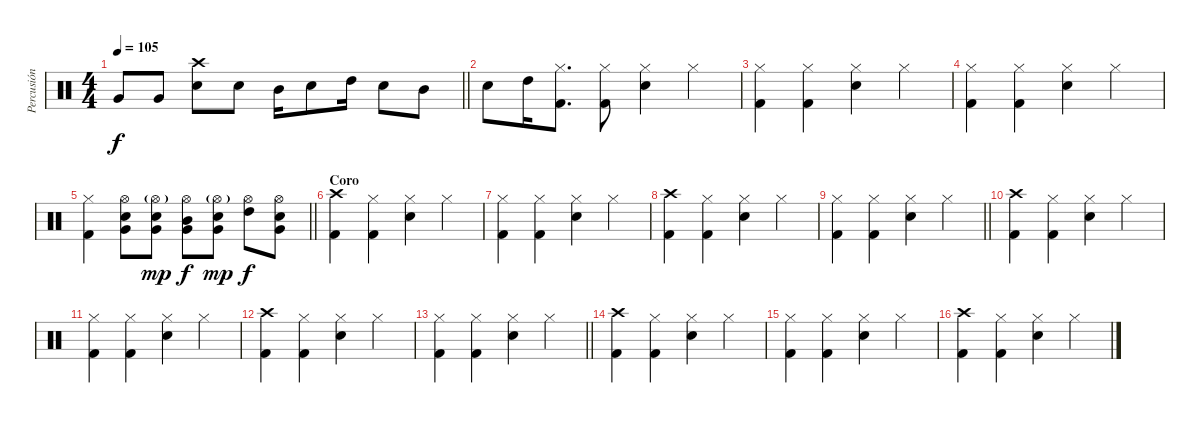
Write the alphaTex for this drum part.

\track ("Percusión" "Percusión") {instrument percussion}
\staff {score}
\articulation defaults
\ts (4 4)
\tempo 105
\clef neutral
\barLineRight lightlight
\ks c "Very Low Tom (hit)".8{dy f volume 16} "Very Low Tom (hit)".8
("Snare (hit) 2" "Crash high (hit)").8 "Snare (hit) 2".8 "Mid Tom (hit)".16 "Snare (hit) 2".8 "High Tom (hit)".16 "Snare (hit) 2".8 "Mid Tom (hit)".8 |
"Snare (hit) 2".8 "High Tom (hit)".16 ("Kick (hit) 2" "Hi-Hat (closed)").8{d} ("Kick (hit) 2" "Hi-Hat (closed)").8 ("Snare (hit) 2" "Hi-Hat (closed)").4{volume 13} "Hi-Hat (closed)".4 |
("Kick (hit) 2" "Hi-Hat (closed)").4 ("Kick (hit) 2" "Hi-Hat (closed)").4 ("Snare (hit) 2" "Hi-Hat (closed)").4 "Hi-Hat (closed)".4 |
("Kick (hit) 2" "Hi-Hat (closed)").4 ("Kick (hit) 2" "Hi-Hat (closed)").4 ("Snare (hit) 2" "Hi-Hat (closed)").4 "Hi-Hat (closed)".4 |
\barLineRight lightlight
("Kick (hit) 2" "Hi-Hat (closed)").4 ("Very Low Tom (hit)" "Snare (hit) 2" "Hi-Hat (open)").8 ("Very Low Tom (hit)" "Snare (hit) 2" "Hi-Hat (open)"{g}).8{dy mp} ("Very Low Tom (hit)" "Mid Tom (hit)" "Hi-Hat (open)").8{dy f} ("Very Low Tom (hit)" "Snare (hit) 2" "Hi-Hat (open)"{g}).8{dy mp} ("High Tom (hit)" "Hi-Hat (open)").8{dy f} ("Very Low Tom (hit)" "Snare (hit) 2" "Hi-Hat (open)").8 |
\section ("" "Coro")
("Kick (hit) 2" "Crash high (hit)").4 ("Kick (hit) 2" "Hi-Hat (closed)").4 ("Snare (hit) 2" "Hi-Hat (closed)").4 "Hi-Hat (closed)".4 |
("Kick (hit) 2" "Hi-Hat (closed)").4 ("Kick (hit) 2" "Hi-Hat (closed)").4 ("Snare (hit) 2" "Hi-Hat (closed)").4 "Hi-Hat (closed)".4 |
("Kick (hit) 2" "Crash high (hit)").4 ("Kick (hit) 2" "Hi-Hat (closed)").4 ("Snare (hit) 2" "Hi-Hat (closed)").4 "Hi-Hat (closed)".4 |
\barLineRight lightlight
("Kick (hit) 2" "Hi-Hat (closed)").4 ("Kick (hit) 2" "Hi-Hat (closed)").4 ("Snare (hit) 2" "Hi-Hat (closed)").4 "Hi-Hat (closed)".4 |
("Kick (hit) 2" "Crash high (hit)").4 ("Kick (hit) 2" "Hi-Hat (closed)").4 ("Snare (hit) 2" "Hi-Hat (closed)").4 "Hi-Hat (closed)".4 |
("Kick (hit) 2" "Hi-Hat (closed)").4 ("Kick (hit) 2" "Hi-Hat (closed)").4 ("Snare (hit) 2" "Hi-Hat (closed)").4 "Hi-Hat (closed)".4 |
("Kick (hit) 2" "Crash high (hit)").4 ("Kick (hit) 2" "Hi-Hat (closed)").4 ("Snare (hit) 2" "Hi-Hat (closed)").4 "Hi-Hat (closed)".4 |
\barLineRight lightlight
("Kick (hit) 2" "Hi-Hat (closed)").4 ("Kick (hit) 2" "Hi-Hat (closed)").4 ("Snare (hit) 2" "Hi-Hat (closed)").4 "Hi-Hat (closed)".4 |
("Kick (hit) 2" "Crash high (hit)").4 ("Kick (hit) 2" "Hi-Hat (closed)").4 ("Snare (hit) 2" "Hi-Hat (closed)").4 "Hi-Hat (closed)".4 |
("Kick (hit) 2" "Hi-Hat (closed)").4 ("Kick (hit) 2" "Hi-Hat (closed)").4 ("Snare (hit) 2" "Hi-Hat (closed)").4 "Hi-Hat (closed)".4 |
("Kick (hit) 2" "Crash high (hit)").4 ("Kick (hit) 2" "Hi-Hat (closed)").4 ("Snare (hit) 2" "Hi-Hat (closed)").4 "Hi-Hat (closed)".4
